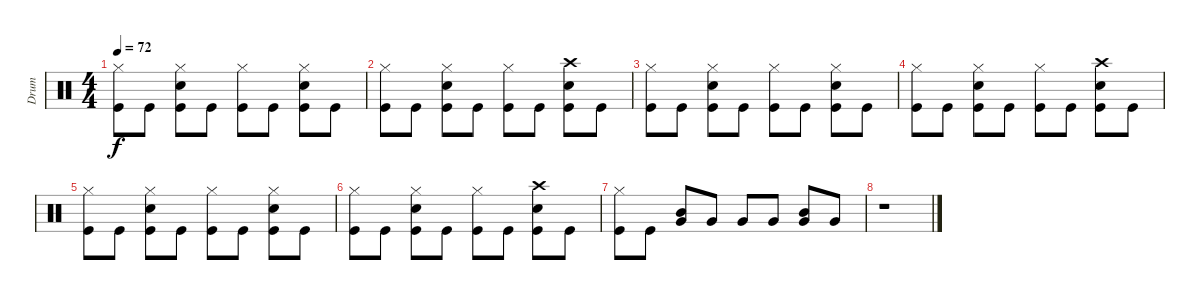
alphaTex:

\track ("Drum" "Drum") {instrument percussion}
\staff {score}
\articulation defaults
\ts (4 4)
\tempo 72
\clef neutral
\ks c
("Hi-Hat (closed)" "Kick (hit)").8{dy f} "Kick (hit)".8 ("Kick (hit)" "Snare (hit) 2" "Hi-Hat (closed)").8 "Kick (hit)".8 ("Kick (hit)" "Hi-Hat (closed)").8 "Kick (hit)".8 ("Kick (hit)" "Snare (hit) 2" "Hi-Hat (closed)").8 "Kick (hit)".8 |
("Hi-Hat (closed)" "Kick (hit)").8 "Kick (hit)".8 ("Kick (hit)" "Snare (hit) 2" "Hi-Hat (closed)").8 "Kick (hit)".8 ("Kick (hit)" "Hi-Hat (closed)").8 "Kick (hit)".8 ("Kick (hit)" "Snare (hit) 2" "Crash high (hit)").8 "Kick (hit)".8 |
("Hi-Hat (closed)" "Kick (hit)").8 "Kick (hit)".8 ("Kick (hit)" "Snare (hit) 2" "Hi-Hat (closed)").8 "Kick (hit)".8 ("Kick (hit)" "Hi-Hat (closed)").8 "Kick (hit)".8 ("Kick (hit)" "Snare (hit) 2" "Hi-Hat (closed)").8 "Kick (hit)".8 |
("Hi-Hat (closed)" "Kick (hit)").8 "Kick (hit)".8 ("Kick (hit)" "Snare (hit) 2" "Hi-Hat (closed)").8 "Kick (hit)".8 ("Kick (hit)" "Hi-Hat (closed)").8 "Kick (hit)".8 ("Kick (hit)" "Snare (hit) 2" "Crash high (hit)").8 "Kick (hit)".8 |
("Hi-Hat (closed)" "Kick (hit)").8 "Kick (hit)".8 ("Kick (hit)" "Snare (hit) 2" "Hi-Hat (closed)").8 "Kick (hit)".8 ("Kick (hit)" "Hi-Hat (closed)").8 "Kick (hit)".8 ("Kick (hit)" "Snare (hit) 2" "Hi-Hat (closed)").8 "Kick (hit)".8 |
("Hi-Hat (closed)" "Kick (hit)").8 "Kick (hit)".8 ("Kick (hit)" "Snare (hit) 2" "Hi-Hat (closed)").8 "Kick (hit)".8 ("Kick (hit)" "Hi-Hat (closed)").8 "Kick (hit)".8 ("Kick (hit)" "Snare (hit) 2" "Crash high (hit)").8 "Kick (hit)".8 |
("Kick (hit)" "Hi-Hat (closed)").8 "Kick (hit)".8 ("Very Low Tom (hit)" "Mid Tom (hit)").8 "Very Low Tom (hit)".8 "Very Low Tom (hit)".8 "Very Low Tom (hit)".8 ("Very Low Tom (hit)" "Mid Tom (hit)").8 "Very Low Tom (hit)".8 |
r.1
